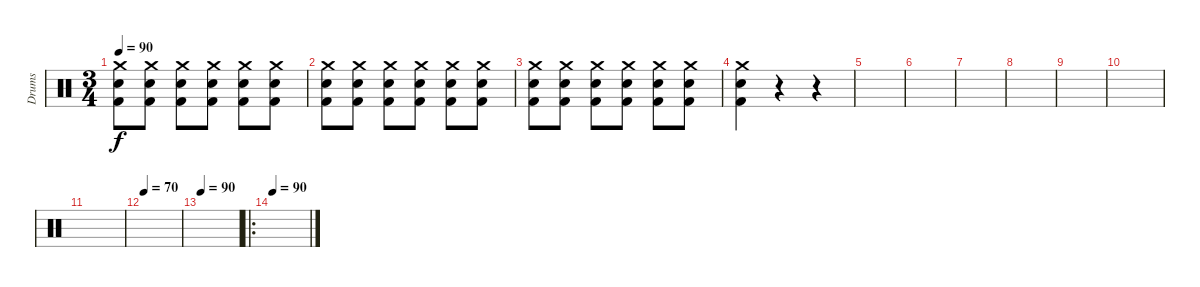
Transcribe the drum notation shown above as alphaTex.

\track ("Drums" "Drums") {instrument percussion}
\staff {score}
\articulation defaults
\ts (3 4)
\tempo 90
\clef neutral
\ks c
("Electric Snare (hit)" "Kick (hit) 2" "Crash medium (hit)").8{dy f volume 7} ("Electric Snare (hit)" "Kick (hit) 2" "Crash medium (hit)").8{volume 13} ("Electric Snare (hit)" "Kick (hit) 2" "Crash medium (hit)").8 ("Electric Snare (hit)" "Kick (hit) 2" "Crash medium (hit)").8 ("Electric Snare (hit)" "Kick (hit) 2" "Crash medium (hit)").8 ("Electric Snare (hit)" "Kick (hit) 2" "Crash medium (hit)").8 |
("Electric Snare (hit)" "Kick (hit) 2" "Crash medium (hit)").8 ("Electric Snare (hit)" "Kick (hit) 2" "Crash medium (hit)").8 ("Electric Snare (hit)" "Kick (hit) 2" "Crash medium (hit)").8 ("Electric Snare (hit)" "Kick (hit) 2" "Crash medium (hit)").8 ("Electric Snare (hit)" "Kick (hit) 2" "Crash medium (hit)").8 ("Electric Snare (hit)" "Kick (hit) 2" "Crash medium (hit)").8 |
("Electric Snare (hit)" "Kick (hit) 2" "Crash medium (hit)").8 ("Electric Snare (hit)" "Kick (hit) 2" "Crash medium (hit)").8 ("Electric Snare (hit)" "Kick (hit) 2" "Crash medium (hit)").8 ("Electric Snare (hit)" "Kick (hit) 2" "Crash medium (hit)").8 ("Electric Snare (hit)" "Kick (hit) 2" "Crash medium (hit)").8 ("Electric Snare (hit)" "Kick (hit) 2" "Crash medium (hit)").8 |
("Electric Snare (hit)" "Kick (hit) 2" "Crash medium (hit)").4 r.4 r.4 |
|
|
|
|
|
|
|
\tempo 70
|
\tempo 90
|
\ro
\tempo 90
